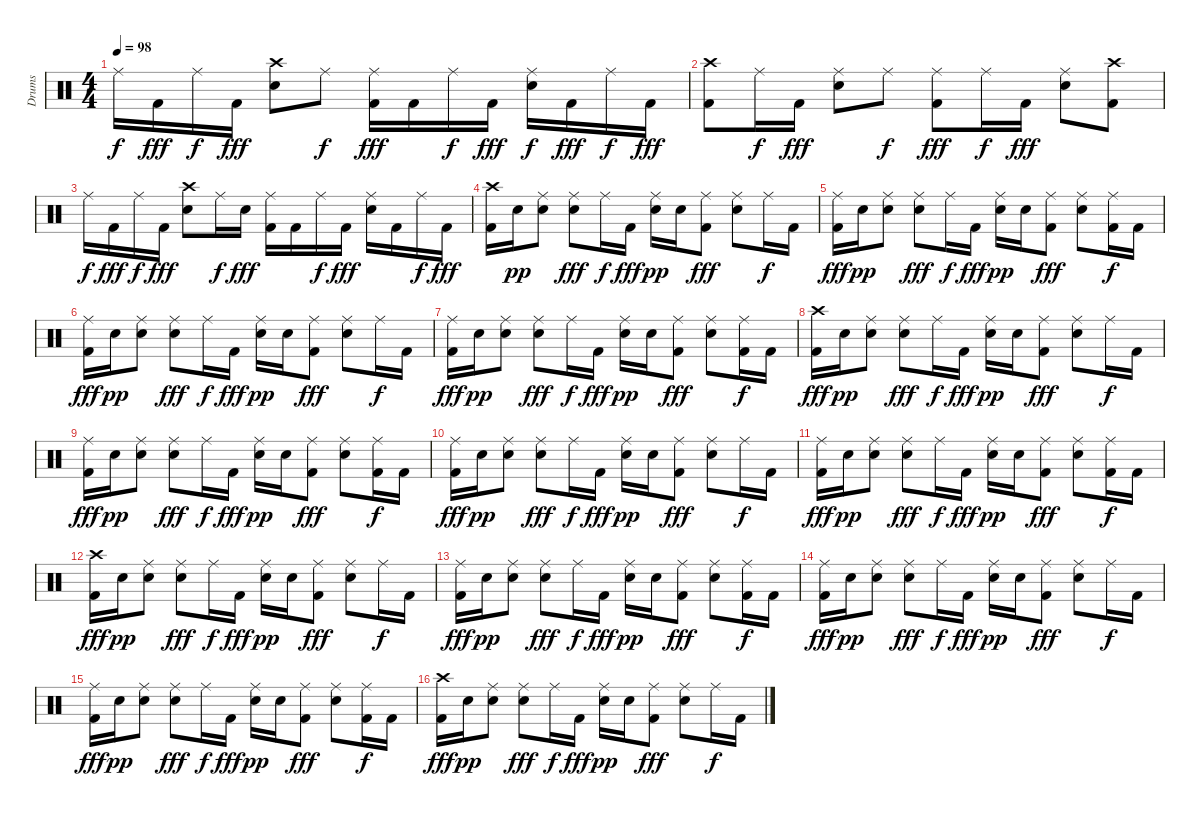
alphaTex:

\track ("Drums" "Drums") {instrument percussion}
\staff {score}
\articulation defaults
\ts (4 4)
\tempo 98
\clef neutral
\ks c "Ride (middle)".16{dy f} "Kick (hit) 2".16{dy fff} "Ride (middle)".16{dy f} "Kick (hit) 2".16{dy fff}
("Snare (hit) 2" "Crash high (hit)").8 "Ride (middle)".8{dy f} ("Ride (middle)" "Kick (hit) 2").16{dy fff} "Kick (hit) 2".16 "Ride (middle)".16{dy f} "Kick (hit) 2".16{dy fff} ("Ride (middle)" "Snare (hit) 2").16{dy f} "Kick (hit) 2".16{dy fff} "Ride (middle)".16{dy f} "Kick (hit) 2".16{dy fff} |
("Crash high (hit)" "Kick (hit) 2").8 "Ride (middle)".16{dy f} "Kick (hit) 2".16{dy fff} ("Ride (middle)" "Snare (hit) 2").8 "Ride (middle)".8{dy f} ("Ride (middle)" "Kick (hit) 2").8{dy fff} "Ride (middle)".16{dy f} "Kick (hit) 2".16{dy fff} ("Ride (middle)" "Snare (hit) 2").8 ("Crash high (hit)" "Kick (hit) 2").8 |
"Ride (middle)".16{dy f} "Kick (hit) 2".16{dy fff} "Ride (middle)".16{dy f} "Kick (hit) 2".16{dy fff} ("Snare (hit) 2" "Crash high (hit)").8 "Ride (middle)".16{dy f} "Snare (hit) 2".16{dy fff} ("Ride (middle)" "Kick (hit) 2").16 "Kick (hit) 2".16 "Ride (middle)".16{dy f} "Kick (hit) 2".16{dy fff} ("Ride (middle)" "Snare (hit) 2").16 "Kick (hit) 2".16 "Ride (middle)".16{dy f} "Kick (hit) 2".16{dy fff} |
("Kick (hit) 2" "Crash high (hit)").16 "Electric Snare (hit)".16{dy pp} ("Ride (middle)" "Electric Snare (hit)").8 ("Snare (hit) 2" "Ride (middle)").8{dy fff} "Ride (middle)".16{dy f} "Kick (hit) 2".16{dy fff} ("Ride (middle)" "Electric Snare (hit)").16{dy pp} "Electric Snare (hit)".16 ("Kick (hit) 2" "Ride (middle)").8{dy fff} ("Snare (hit) 2" "Ride (middle)").8 "Ride (middle)".16{dy f} "Kick (hit) 2".16 |
("Kick (hit) 2" "Ride (middle)").16{dy fff} "Electric Snare (hit)".16{dy pp} ("Ride (middle)" "Electric Snare (hit)").8 ("Snare (hit) 2" "Ride (middle)").8{dy fff} "Ride (middle)".16{dy f} "Kick (hit) 2".16{dy fff} ("Ride (middle)" "Electric Snare (hit)").16{dy pp} "Electric Snare (hit)".16 ("Kick (hit) 2" "Ride (middle)").8{dy fff} ("Snare (hit) 2" "Ride (middle)").8 ("Kick (hit) 2" "Ride (middle)").16{dy f} "Kick (hit) 2".16 |
("Kick (hit) 2" "Ride (middle)").16{dy fff} "Electric Snare (hit)".16{dy pp} ("Ride (middle)" "Electric Snare (hit)").8 ("Snare (hit) 2" "Ride (middle)").8{dy fff} "Ride (middle)".16{dy f} "Kick (hit) 2".16{dy fff} ("Ride (middle)" "Electric Snare (hit)").16{dy pp} "Electric Snare (hit)".16 ("Kick (hit) 2" "Ride (middle)").8{dy fff} ("Snare (hit) 2" "Ride (middle)").8 "Ride (middle)".16{dy f} "Kick (hit) 2".16 |
("Kick (hit) 2" "Ride (middle)").16{dy fff} "Electric Snare (hit)".16{dy pp} ("Ride (middle)" "Electric Snare (hit)").8 ("Snare (hit) 2" "Ride (middle)").8{dy fff} "Ride (middle)".16{dy f} "Kick (hit) 2".16{dy fff} ("Ride (middle)" "Electric Snare (hit)").16{dy pp} "Electric Snare (hit)".16 ("Kick (hit) 2" "Ride (middle)").8{dy fff} ("Snare (hit) 2" "Ride (middle)").8 ("Kick (hit) 2" "Ride (middle)").16{dy f} "Kick (hit) 2".16 |
("Kick (hit) 2" "Crash high (hit)").16{dy fff} "Electric Snare (hit)".16{dy pp} ("Ride (middle)" "Electric Snare (hit)").8 ("Snare (hit) 2" "Ride (middle)").8{dy fff} "Ride (middle)".16{dy f} "Kick (hit) 2".16{dy fff} ("Ride (middle)" "Electric Snare (hit)").16{dy pp} "Electric Snare (hit)".16 ("Kick (hit) 2" "Ride (middle)").8{dy fff} ("Snare (hit) 2" "Ride (middle)").8 "Ride (middle)".16{dy f} "Kick (hit) 2".16 |
("Kick (hit) 2" "Ride (middle)").16{dy fff} "Electric Snare (hit)".16{dy pp} ("Ride (middle)" "Electric Snare (hit)").8 ("Snare (hit) 2" "Ride (middle)").8{dy fff} "Ride (middle)".16{dy f} "Kick (hit) 2".16{dy fff} ("Ride (middle)" "Electric Snare (hit)").16{dy pp} "Electric Snare (hit)".16 ("Kick (hit) 2" "Ride (middle)").8{dy fff} ("Snare (hit) 2" "Ride (middle)").8 ("Kick (hit) 2" "Ride (middle)").16{dy f} "Kick (hit) 2".16 |
("Kick (hit) 2" "Ride (middle)").16{dy fff} "Electric Snare (hit)".16{dy pp} ("Ride (middle)" "Electric Snare (hit)").8 ("Snare (hit) 2" "Ride (middle)").8{dy fff} "Ride (middle)".16{dy f} "Kick (hit) 2".16{dy fff} ("Ride (middle)" "Electric Snare (hit)").16{dy pp} "Electric Snare (hit)".16 ("Kick (hit) 2" "Ride (middle)").8{dy fff} ("Snare (hit) 2" "Ride (middle)").8 "Ride (middle)".16{dy f} "Kick (hit) 2".16 |
("Kick (hit) 2" "Ride (middle)").16{dy fff} "Electric Snare (hit)".16{dy pp} ("Ride (middle)" "Electric Snare (hit)").8 ("Snare (hit) 2" "Ride (middle)").8{dy fff} "Ride (middle)".16{dy f} "Kick (hit) 2".16{dy fff} ("Ride (middle)" "Electric Snare (hit)").16{dy pp} "Electric Snare (hit)".16 ("Kick (hit) 2" "Ride (middle)").8{dy fff} ("Snare (hit) 2" "Ride (middle)").8 ("Kick (hit) 2" "Ride (middle)").16{dy f} "Kick (hit) 2".16 |
("Kick (hit) 2" "Crash high (hit)").16{dy fff} "Electric Snare (hit)".16{dy pp} ("Ride (middle)" "Electric Snare (hit)").8 ("Snare (hit) 2" "Ride (middle)").8{dy fff} "Ride (middle)".16{dy f} "Kick (hit) 2".16{dy fff} ("Ride (middle)" "Electric Snare (hit)").16{dy pp} "Electric Snare (hit)".16 ("Kick (hit) 2" "Ride (middle)").8{dy fff} ("Snare (hit) 2" "Ride (middle)").8 "Ride (middle)".16{dy f} "Kick (hit) 2".16 |
("Kick (hit) 2" "Ride (middle)").16{dy fff} "Electric Snare (hit)".16{dy pp} ("Ride (middle)" "Electric Snare (hit)").8 ("Snare (hit) 2" "Ride (middle)").8{dy fff} "Ride (middle)".16{dy f} "Kick (hit) 2".16{dy fff} ("Ride (middle)" "Electric Snare (hit)").16{dy pp} "Electric Snare (hit)".16 ("Kick (hit) 2" "Ride (middle)").8{dy fff} ("Snare (hit) 2" "Ride (middle)").8 ("Kick (hit) 2" "Ride (middle)").16{dy f} "Kick (hit) 2".16 |
("Kick (hit) 2" "Ride (middle)").16{dy fff} "Electric Snare (hit)".16{dy pp} ("Ride (middle)" "Electric Snare (hit)").8 ("Snare (hit) 2" "Ride (middle)").8{dy fff} "Ride (middle)".16{dy f} "Kick (hit) 2".16{dy fff} ("Ride (middle)" "Electric Snare (hit)").16{dy pp} "Electric Snare (hit)".16 ("Kick (hit) 2" "Ride (middle)").8{dy fff} ("Snare (hit) 2" "Ride (middle)").8 "Ride (middle)".16{dy f} "Kick (hit) 2".16 |
("Kick (hit) 2" "Ride (middle)").16{dy fff} "Electric Snare (hit)".16{dy pp} ("Ride (middle)" "Electric Snare (hit)").8 ("Snare (hit) 2" "Ride (middle)").8{dy fff} "Ride (middle)".16{dy f} "Kick (hit) 2".16{dy fff} ("Ride (middle)" "Electric Snare (hit)").16{dy pp} "Electric Snare (hit)".16 ("Kick (hit) 2" "Ride (middle)").8{dy fff} ("Snare (hit) 2" "Ride (middle)").8 ("Kick (hit) 2" "Ride (middle)").16{dy f} "Kick (hit) 2".16 |
("Kick (hit) 2" "Crash high (hit)").16{dy fff} "Electric Snare (hit)".16{dy pp} ("Ride (middle)" "Electric Snare (hit)").8 ("Snare (hit) 2" "Ride (middle)").8{dy fff} "Ride (middle)".16{dy f} "Kick (hit) 2".16{dy fff} ("Ride (middle)" "Electric Snare (hit)").16{dy pp} "Electric Snare (hit)".16 ("Kick (hit) 2" "Ride (middle)").8{dy fff} ("Snare (hit) 2" "Ride (middle)").8 "Ride (middle)".16{dy f} "Kick (hit) 2".16
